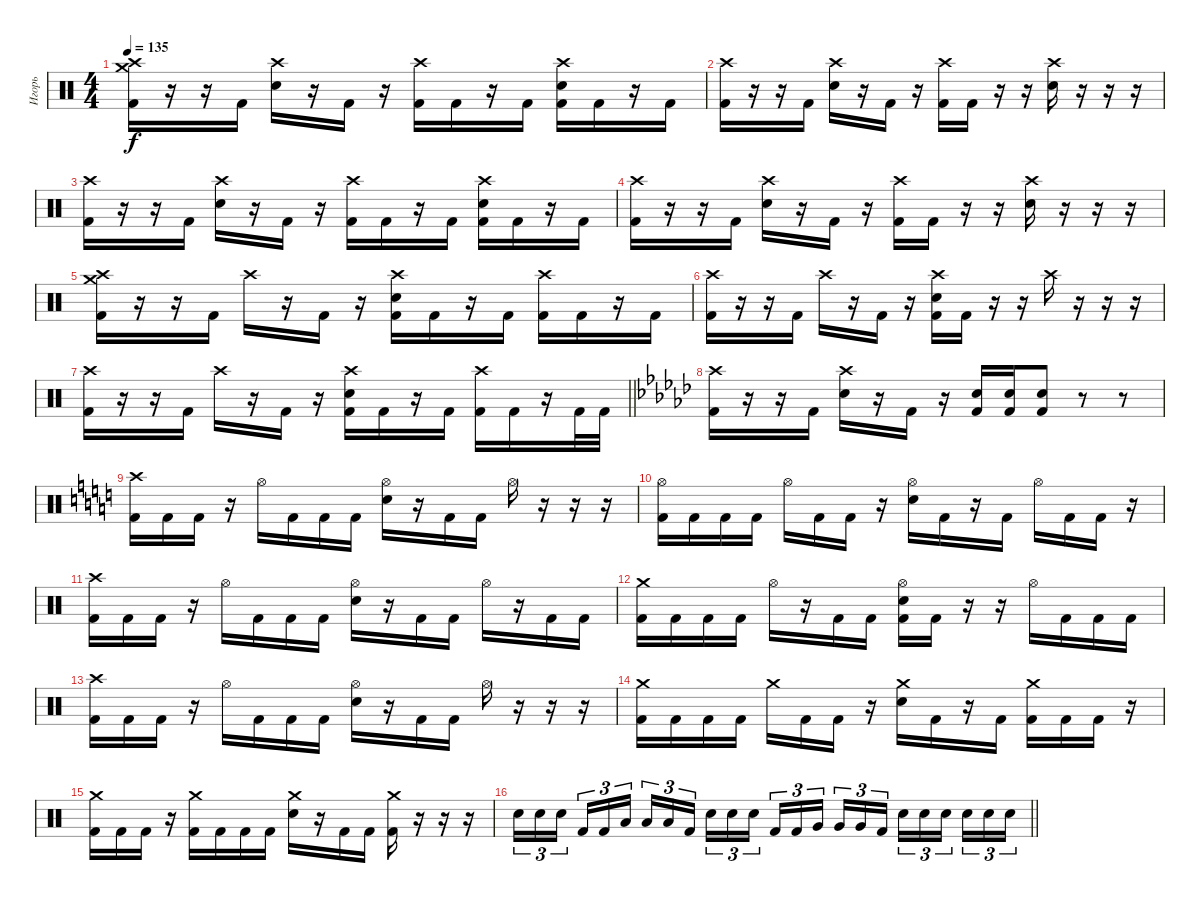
\track ("Игорь" "Игорь") {instrument percussion}
\staff {score}
\articulation defaults
\ts (4 4)
\tempo 135
\clef neutral
\ks c
("Crash medium (hit)" "Crash high (hit)" "Kick (hit) 2").16{dy f} r.16 r.16 "Kick (hit) 2".16 ("Crash high (hit)" "Electric Snare (hit)").16 r.16 "Kick (hit) 2".16 r.16 ("Crash high (hit)" "Kick (hit) 2").16 "Kick (hit) 2".16 r.16 "Kick (hit) 2".16 ("Crash high (hit)" "Electric Snare (hit)" "Kick (hit) 2").16 "Kick (hit) 2".16 r.16 "Kick (hit) 2".16 |
("Crash high (hit)" "Kick (hit) 2").16 r.16 r.16 "Kick (hit) 2".16 ("Crash high (hit)" "Electric Snare (hit)").16 r.16 "Kick (hit) 2".16 r.16 ("Crash high (hit)" "Kick (hit) 2").16 "Kick (hit) 2".16 r.16 r.16 ("Crash high (hit)" "Electric Snare (hit)").16 r.16 r.16 r.16 |
("Crash high (hit)" "Kick (hit) 2").16 r.16 r.16 "Kick (hit) 2".16 ("Crash high (hit)" "Electric Snare (hit)").16 r.16 "Kick (hit) 2".16 r.16 ("Crash high (hit)" "Kick (hit) 2").16 "Kick (hit) 2".16 r.16 "Kick (hit) 2".16 ("Crash high (hit)" "Electric Snare (hit)" "Kick (hit) 2").16 "Kick (hit) 2".16 r.16 "Kick (hit) 2".16 |
("Crash high (hit)" "Kick (hit) 2").16 r.16 r.16 "Kick (hit) 2".16 ("Crash high (hit)" "Electric Snare (hit)").16 r.16 "Kick (hit) 2".16 r.16 ("Crash high (hit)" "Kick (hit) 2").16 "Kick (hit) 2".16 r.16 r.16 ("Crash high (hit)" "Electric Snare (hit)").16 r.16 r.16 r.16 |
("Crash medium (hit)" "Crash high (hit)" "Kick (hit) 2").16 r.16 r.16 "Kick (hit) 2".16 "Crash high (hit)".16 r.16 "Kick (hit) 2".16 r.16 ("Crash high (hit)" "Electric Snare (hit)" "Kick (hit) 2").16 "Kick (hit) 2".16 r.16 "Kick (hit) 2".16 ("Crash high (hit)" "Kick (hit) 2").16 "Kick (hit) 2".16 r.16 "Kick (hit) 2".16 |
("Crash high (hit)" "Kick (hit) 2").16 r.16 r.16 "Kick (hit) 2".16 "Crash high (hit)".16 r.16 "Kick (hit) 2".16 r.16 ("Crash high (hit)" "Electric Snare (hit)" "Kick (hit) 2").16 "Kick (hit) 2".16 r.16 r.16 "Crash high (hit)".16 r.16 r.16 r.16 |
\barLineRight lightlight
("Crash high (hit)" "Kick (hit) 2").16 r.16 r.16 "Kick (hit) 2".16 "Crash high (hit)".16 r.16 "Kick (hit) 2".16 r.16 ("Crash high (hit)" "Electric Snare (hit)" "Kick (hit) 2").16 "Kick (hit) 2".16 r.16 "Kick (hit) 2".16 ("Crash high (hit)" "Kick (hit) 2").16 "Kick (hit) 2".16 r.16 "Kick (hit) 2".32 "Kick (hit) 2".32 |
\ks ebminor
("Crash high (hit)" "Kick (hit) 2").16 r.16 r.16 "Kick (hit) 2".16 ("Crash high (hit)" "Electric Snare (hit)").16 r.16 "Kick (hit) 2".16 r.16 ("Electric Snare (hit)" "Kick (hit) 2").16 ("Electric Snare (hit)" "Kick (hit) 2").16 ("Electric Snare (hit)" "Kick (hit) 2").8 r.8 r.8 |
\ks c
("Crash high (hit)" "Kick (hit) 2").16 "Kick (hit) 2".16 "Kick (hit) 2".16 r.16 "Hi-Hat (open)".16 "Kick (hit) 2".16 "Kick (hit) 2".16 "Kick (hit) 2".16 ("Hi-Hat (open)" "Electric Snare (hit)").16 r.16 "Kick (hit) 2".16 "Kick (hit) 2".16 "Hi-Hat (open)".16 r.16 r.16 r.16 |
("Hi-Hat (open)" "Kick (hit) 2").16 "Kick (hit) 2".16 "Kick (hit) 2".16 "Kick (hit) 2".16 "Hi-Hat (open)".16 "Kick (hit) 2".16 "Kick (hit) 2".16 r.16 ("Hi-Hat (open)" "Electric Snare (hit)").16 "Kick (hit) 2".16 r.16 "Kick (hit) 2".16 "Hi-Hat (open)".16 "Kick (hit) 2".16 "Kick (hit) 2".16 r.16 |
("Crash high (hit)" "Kick (hit) 2").16 "Kick (hit) 2".16 "Kick (hit) 2".16 r.16 "Hi-Hat (open)".16 "Kick (hit) 2".16 "Kick (hit) 2".16 "Kick (hit) 2".16 ("Hi-Hat (open)" "Electric Snare (hit)").16 r.16 "Kick (hit) 2".16 "Kick (hit) 2".16 "Hi-Hat (open)".16 r.16 "Kick (hit) 2".16 "Kick (hit) 2".16 |
("Crash medium (hit)" "Kick (hit) 2").16 "Kick (hit) 2".16 "Kick (hit) 2".16 "Kick (hit) 2".16 "Hi-Hat (open)".16 r.16 "Kick (hit) 2".16 "Kick (hit) 2".16 ("Hi-Hat (open)" "Electric Snare (hit)" "Kick (hit) 2").16 "Kick (hit) 2".16 r.16 r.16 "Hi-Hat (open)".16 "Kick (hit) 2".16 "Kick (hit) 2".16 "Kick (hit) 2".16 |
("Crash high (hit)" "Kick (hit) 2").16 "Kick (hit) 2".16 "Kick (hit) 2".16 r.16 "Hi-Hat (open)".16 "Kick (hit) 2".16 "Kick (hit) 2".16 "Kick (hit) 2".16 ("Hi-Hat (open)" "Electric Snare (hit)").16 r.16 "Kick (hit) 2".16 "Kick (hit) 2".16 "Hi-Hat (open)".16 r.16 r.16 r.16 |
("Crash medium (hit)" "Kick (hit) 2").16 "Kick (hit) 2".16 "Kick (hit) 2".16 "Kick (hit) 2".16 "Crash medium (hit)".16 "Kick (hit) 2".16 "Kick (hit) 2".16 r.16 ("Crash medium (hit)" "Electric Snare (hit)").16 "Kick (hit) 2".16 r.16 "Kick (hit) 2".16 ("Crash medium (hit)" "Kick (hit) 2").16 "Kick (hit) 2".16 "Kick (hit) 2".16 r.16 |
("Crash medium (hit)" "Kick (hit) 2").16 "Kick (hit) 2".16 "Kick (hit) 2".16 r.16 ("Crash medium (hit)" "Kick (hit) 2").16 "Kick (hit) 2".16 "Kick (hit) 2".16 "Kick (hit) 2".16 ("Crash medium (hit)" "Electric Snare (hit)").16 r.16 "Kick (hit) 2".16 "Kick (hit) 2".16 ("Crash medium (hit)" "Kick (hit) 2").16 r.16 r.16 r.16 |
\barLineRight lightlight "Electric Snare (hit)".16{tu (3 2)} "Electric Snare (hit)".16{tu (3 2)} "Electric Snare (hit)".16{tu (3 2) beam splitsecondary} "Kick (hit) 2".16{tu (3 2)} "Kick (hit) 2".16{tu (3 2)} "Low Tom (hit)".16{tu (3 2)} "Low Tom (hit)".16{tu (3 2)} "Low Tom (hit)".16{tu (3 2)} "Kick (hit) 2".16{tu (3 2) beam splitsecondary} "Electric Snare (hit)".16{tu (3 2)} "Electric Snare (hit)".16{tu (3 2)} "Electric Snare (hit)".16{tu (3 2)} "Kick (hit) 2".16{tu (3 2)} "Kick (hit) 2".16{tu (3 2)} "Very Low Tom (hit)".16{tu (3 2) beam splitsecondary} "Very Low Tom (hit)".16{tu (3 2)} "Very Low Tom (hit)".16{tu (3 2)} "Kick (hit) 2".16{tu (3 2)} "Electric Snare (hit)".16{tu (3 2)} "Electric Snare (hit)".16{tu (3 2)} "Electric Snare (hit)".16{tu (3 2) beam splitsecondary} "Electric Snare (hit)".16{tu (3 2)} "Electric Snare (hit)".16{tu (3 2)} "Electric Snare (hit)".16{tu (3 2)}
